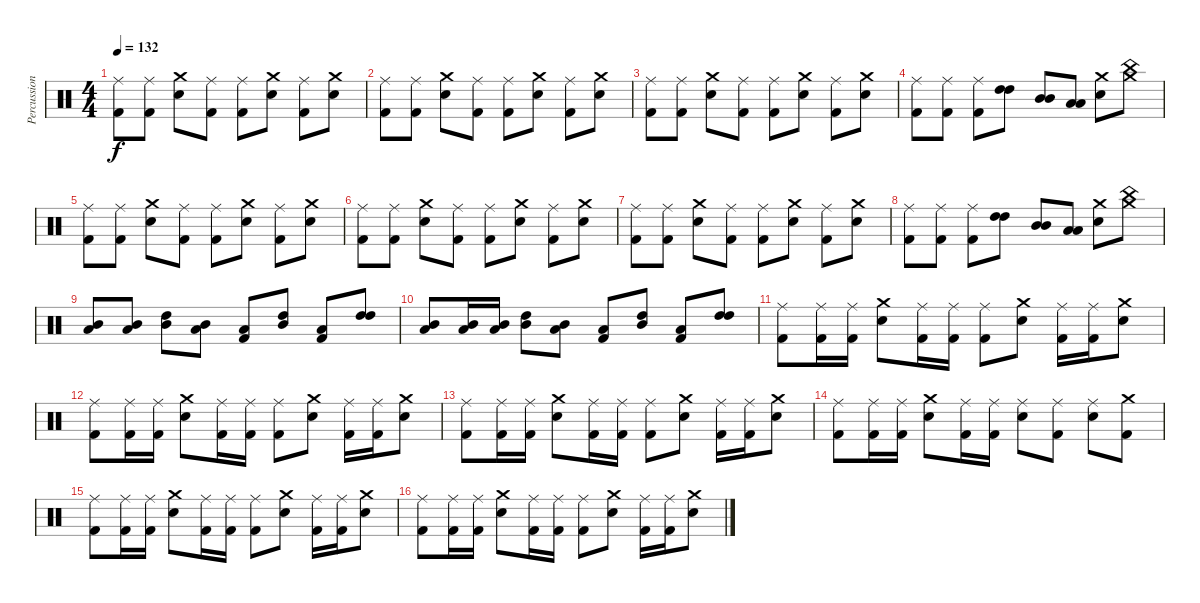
\track ("Percussion" "Percussion") {instrument percussion}
\staff {score}
\articulation defaults
\ts (4 4)
\tempo 132
\clef neutral
\ks c
("Ride (middle)" "Kick (hit) 2").8{dy f} ("Ride (middle)" "Kick (hit) 2").8 ("Crash medium (hit)" "Electric Snare (hit)").8 ("Ride (middle)" "Kick (hit) 2").8 ("Ride (middle)" "Kick (hit) 2").8 ("Crash medium (hit)" "Electric Snare (hit)").8 ("Ride (middle)" "Kick (hit) 2").8 ("Crash medium (hit)" "Electric Snare (hit)").8 |
("Ride (middle)" "Kick (hit) 2").8 ("Ride (middle)" "Kick (hit) 2").8 ("Crash medium (hit)" "Electric Snare (hit)").8 ("Ride (middle)" "Kick (hit) 2").8 ("Ride (middle)" "Kick (hit) 2").8 ("Crash medium (hit)" "Electric Snare (hit)").8 ("Ride (middle)" "Kick (hit) 2").8 ("Crash medium (hit)" "Electric Snare (hit)").8 |
("Ride (middle)" "Kick (hit) 2").8 ("Ride (middle)" "Kick (hit) 2").8 ("Crash medium (hit)" "Electric Snare (hit)").8 ("Ride (middle)" "Kick (hit) 2").8 ("Ride (middle)" "Kick (hit) 2").8 ("Crash medium (hit)" "Electric Snare (hit)").8 ("Ride (middle)" "Kick (hit) 2").8 ("Crash medium (hit)" "Electric Snare (hit)").8 |
("Ride (middle)" "Kick (hit) 2").8 ("Ride (middle)" "Kick (hit) 2").8 ("Ride (middle)" "Kick (hit) 2").8 ("High Tom (hit)" "High Tom (hit)").8 ("Mid Tom (hit)" "Mid Tom (hit)").8 ("Low Tom (hit)" "Low Tom (hit)").8 ("Electric Snare (hit)" "Crash medium (hit)").8 ("Crash medium (hit)" "China (hit)").8 |
("Ride (middle)" "Kick (hit) 2").8 ("Ride (middle)" "Kick (hit) 2").8 ("Crash medium (hit)" "Electric Snare (hit)").8 ("Ride (middle)" "Kick (hit) 2").8 ("Ride (middle)" "Kick (hit) 2").8 ("Crash medium (hit)" "Electric Snare (hit)").8 ("Ride (middle)" "Kick (hit) 2").8 ("Crash medium (hit)" "Electric Snare (hit)").8 |
("Ride (middle)" "Kick (hit) 2").8 ("Ride (middle)" "Kick (hit) 2").8 ("Crash medium (hit)" "Electric Snare (hit)").8 ("Ride (middle)" "Kick (hit) 2").8 ("Ride (middle)" "Kick (hit) 2").8 ("Crash medium (hit)" "Electric Snare (hit)").8 ("Ride (middle)" "Kick (hit) 2").8 ("Crash medium (hit)" "Electric Snare (hit)").8 |
("Ride (middle)" "Kick (hit) 2").8 ("Ride (middle)" "Kick (hit) 2").8 ("Crash medium (hit)" "Electric Snare (hit)").8 ("Ride (middle)" "Kick (hit) 2").8 ("Ride (middle)" "Kick (hit) 2").8 ("Crash medium (hit)" "Electric Snare (hit)").8 ("Ride (middle)" "Kick (hit) 2").8 ("Crash medium (hit)" "Electric Snare (hit)").8 |
("Ride (middle)" "Kick (hit) 2").8 ("Ride (middle)" "Kick (hit) 2").8 ("Ride (middle)" "Kick (hit) 2").8 ("High Tom (hit)" "High Tom (hit)").8 ("Mid Tom (hit)" "Mid Tom (hit)").8 ("Low Tom (hit)" "Low Tom (hit)").8 ("Electric Snare (hit)" "Crash medium (hit)").8 ("Crash medium (hit)" "China (hit)").8 |
("Mid Tom (hit)" "Low Tom (hit)").8 ("Mid Tom (hit)" "Low Tom (hit)").8 ("High Tom (hit)" "Mid Tom (hit)").8 ("Mid Tom (hit)" "Low Tom (hit)").8 ("Low Tom (hit)" "Kick (hit) 2").8 ("High Tom (hit)" "Mid Tom (hit)").8 ("Low Tom (hit)" "Kick (hit) 2").8 ("High Tom (hit)" "High Tom (hit)").8 |
("Mid Tom (hit)" "Low Tom (hit)").8 ("Mid Tom (hit)" "Low Tom (hit)").16 ("Mid Tom (hit)" "Low Tom (hit)").16 ("High Tom (hit)" "Mid Tom (hit)").8 ("Mid Tom (hit)" "Low Tom (hit)").8 ("Low Tom (hit)" "Kick (hit) 2").8 ("High Tom (hit)" "Mid Tom (hit)").8 ("Low Tom (hit)" "Kick (hit) 2").8 ("High Tom (hit)" "High Tom (hit)").8 |
("Ride (middle)" "Kick (hit) 2").8 ("Ride (middle)" "Kick (hit) 2").16 ("Ride (middle)" "Kick (hit) 2").16 ("Crash medium (hit)" "Electric Snare (hit)").8 ("Ride (middle)" "Kick (hit) 2").16 ("Ride (middle)" "Kick (hit) 2").16 ("Ride (middle)" "Kick (hit) 2").8 ("Crash medium (hit)" "Electric Snare (hit)").8 ("Ride (middle)" "Kick (hit) 2").16 ("Ride (middle)" "Kick (hit) 2").16 ("Crash medium (hit)" "Electric Snare (hit)").8 |
("Ride (middle)" "Kick (hit) 2").8 ("Ride (middle)" "Kick (hit) 2").16 ("Ride (middle)" "Kick (hit) 2").16 ("Crash medium (hit)" "Electric Snare (hit)").8 ("Ride (middle)" "Kick (hit) 2").16 ("Ride (middle)" "Kick (hit) 2").16 ("Ride (middle)" "Kick (hit) 2").8 ("Crash medium (hit)" "Electric Snare (hit)").8 ("Ride (middle)" "Kick (hit) 2").16 ("Ride (middle)" "Kick (hit) 2").16 ("Crash medium (hit)" "Electric Snare (hit)").8 |
("Ride (middle)" "Kick (hit) 2").8 ("Ride (middle)" "Kick (hit) 2").16 ("Ride (middle)" "Kick (hit) 2").16 ("Crash medium (hit)" "Electric Snare (hit)").8 ("Ride (middle)" "Kick (hit) 2").16 ("Ride (middle)" "Kick (hit) 2").16 ("Ride (middle)" "Kick (hit) 2").8 ("Crash medium (hit)" "Electric Snare (hit)").8 ("Ride (middle)" "Kick (hit) 2").16 ("Ride (middle)" "Kick (hit) 2").16 ("Crash medium (hit)" "Electric Snare (hit)").8 |
("Ride (middle)" "Kick (hit) 2").8 ("Ride (middle)" "Kick (hit) 2").16 ("Ride (middle)" "Kick (hit) 2").16 ("Crash medium (hit)" "Electric Snare (hit)").8 ("Ride (middle)" "Kick (hit) 2").16 ("Ride (middle)" "Kick (hit) 2").16 ("Ride (middle)" "Electric Snare (hit)").8 ("Ride (middle)" "Kick (hit) 2").8 ("Ride (middle)" "Electric Snare (hit)").8 ("Crash medium (hit)" "Kick (hit) 2").8 |
("Ride (middle)" "Kick (hit) 2").8 ("Ride (middle)" "Kick (hit) 2").16 ("Ride (middle)" "Kick (hit) 2").16 ("Crash medium (hit)" "Electric Snare (hit)").8 ("Ride (middle)" "Kick (hit) 2").16 ("Ride (middle)" "Kick (hit) 2").16 ("Ride (middle)" "Kick (hit) 2").8 ("Crash medium (hit)" "Electric Snare (hit)").8 ("Ride (middle)" "Kick (hit) 2").16 ("Ride (middle)" "Kick (hit) 2").16 ("Crash medium (hit)" "Electric Snare (hit)").8 |
("Ride (middle)" "Kick (hit) 2").8 ("Ride (middle)" "Kick (hit) 2").16 ("Ride (middle)" "Kick (hit) 2").16 ("Crash medium (hit)" "Electric Snare (hit)").8 ("Ride (middle)" "Kick (hit) 2").16 ("Ride (middle)" "Kick (hit) 2").16 ("Ride (middle)" "Kick (hit) 2").8 ("Crash medium (hit)" "Electric Snare (hit)").8 ("Ride (middle)" "Kick (hit) 2").16 ("Ride (middle)" "Kick (hit) 2").16 ("Crash medium (hit)" "Electric Snare (hit)").8
